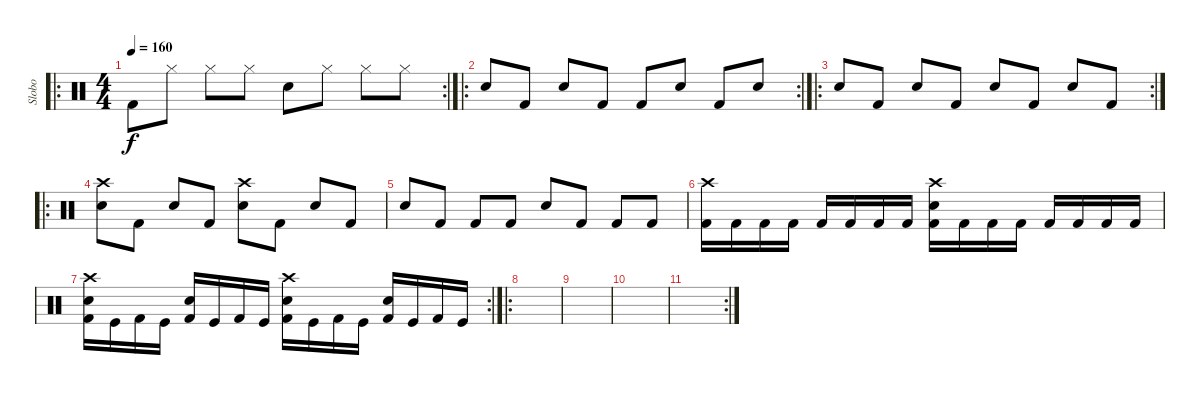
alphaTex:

\track ("Slobo" "Slobo") {instrument percussion}
\staff {score}
\articulation defaults
\ro
\rc 2
\ts (4 4)
\tempo 160
\clef neutral
\ks c "Kick (hit) 2".8{dy f} "Hi-Hat (closed)".8 "Hi-Hat (closed)".8 "Hi-Hat (closed)".8 "Snare (hit) 2".8 "Hi-Hat (closed)".8 "Hi-Hat (closed)".8 "Hi-Hat (closed)".8
|
\ro
\rc 2 "Snare (hit) 2".8 "Kick (hit) 2".8 "Snare (hit) 2".8 "Kick (hit) 2".8 "Kick (hit) 2".8 "Snare (hit) 2".8 "Kick (hit) 2".8 "Snare (hit) 2".8
|
\ro
\rc 2 "Snare (hit) 2".8 "Kick (hit) 2".8 "Snare (hit) 2".8 "Kick (hit) 2".8 "Snare (hit) 2".8 "Kick (hit) 2".8 "Snare (hit) 2".8 "Kick (hit) 2".8
|
\ro
("Crash high (hit)" "Snare (hit) 2").8 "Kick (hit) 2".8 "Snare (hit) 2".8 "Kick (hit) 2".8 ("Crash high (hit)" "Snare (hit) 2").8 "Kick (hit) 2".8 "Snare (hit) 2".8 "Kick (hit) 2".8 |
"Snare (hit) 2".8 "Kick (hit) 2".8 "Kick (hit) 2".8 "Kick (hit) 2".8 "Snare (hit) 2".8 "Kick (hit) 2".8 "Kick (hit) 2".8 "Kick (hit) 2".8 |
("Crash high (hit)" "Kick (hit) 2").16 "Kick (hit) 2".16 "Kick (hit) 2".16 "Kick (hit) 2".16 "Kick (hit) 2".16 "Kick (hit) 2".16 "Kick (hit) 2".16 "Kick (hit) 2".16 ("Crash high (hit)" "Snare (hit) 2" "Kick (hit) 2").16 "Kick (hit) 2".16 "Kick (hit) 2".16 "Kick (hit) 2".16 "Kick (hit) 2".16 "Kick (hit) 2".16 "Kick (hit) 2".16 "Kick (hit) 2".16 |
\rc 2
("Crash high (hit)" "Snare (hit) 2" "Kick (hit) 2").16 "Kick (hit)".16 "Kick (hit) 2".16 "Kick (hit)".16 ("Snare (hit) 2" "Kick (hit) 2").16 "Kick (hit)".16 "Kick (hit) 2".16 "Kick (hit)".16 ("Crash high (hit)" "Snare (hit) 2" "Kick (hit) 2").16 "Kick (hit)".16 "Kick (hit) 2".16 "Kick (hit)".16 ("Snare (hit) 2" "Kick (hit) 2").16 "Kick (hit)".16 "Kick (hit) 2".16 "Kick (hit)".16 |
\ro
|
|
|
\rc 2
